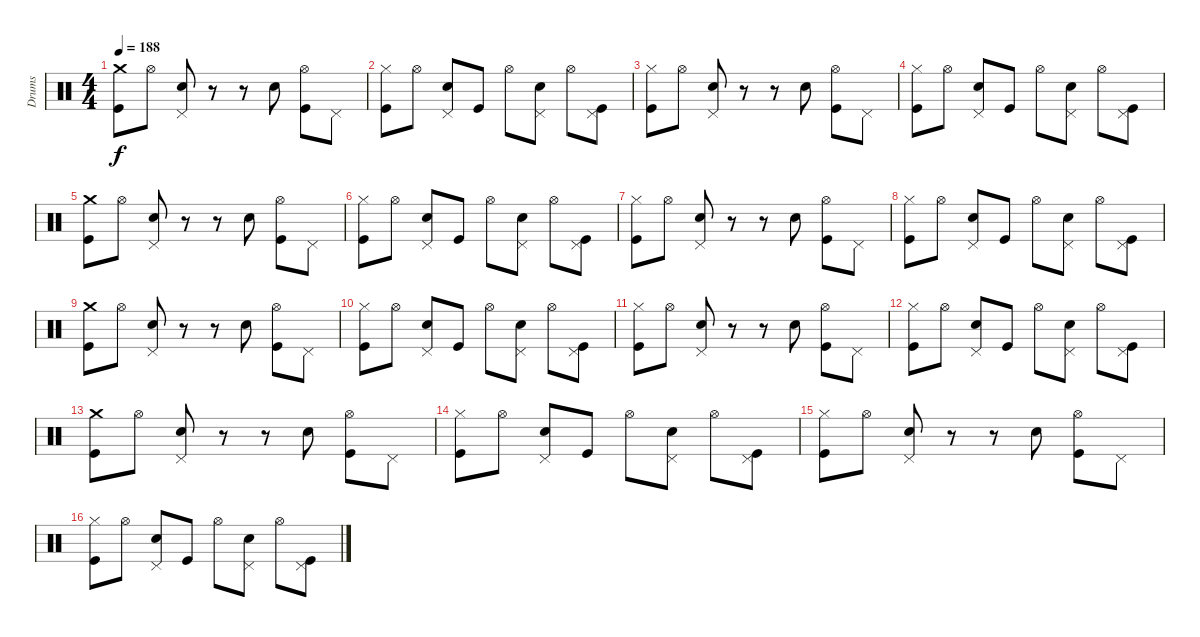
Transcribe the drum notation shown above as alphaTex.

\track ("Drums" "Drums") {instrument percussion}
\staff {score}
\articulation defaults
\ts (4 4)
\tempo 188
\clef neutral
\ks c
("Crash medium (hit)" "Kick (hit)").8{dy f} "Hi-Hat (open)".8 ("Pedal Hi-Hat (hit)" "Electric Snare (hit)").8 r.8 r.8 "Electric Snare (hit)".8 ("Hi-Hat (open)" "Kick (hit)").8 "Pedal Hi-Hat (hit)".8 |
("Hi-Hat (closed)" "Kick (hit)").8 "Hi-Hat (open)".8 ("Pedal Hi-Hat (hit)" "Electric Snare (hit)").8 "Kick (hit)".8 "Hi-Hat (open)".8 ("Pedal Hi-Hat (hit)" "Electric Snare (hit)").8 "Hi-Hat (open)".8 ("Pedal Hi-Hat (hit)" "Kick (hit)").8 |
("Hi-Hat (closed)" "Kick (hit)").8 "Hi-Hat (open)".8 ("Pedal Hi-Hat (hit)" "Electric Snare (hit)").8 r.8 r.8 "Electric Snare (hit)".8 ("Hi-Hat (open)" "Kick (hit)").8 "Pedal Hi-Hat (hit)".8 |
("Hi-Hat (closed)" "Kick (hit)").8 "Hi-Hat (open)".8 ("Pedal Hi-Hat (hit)" "Electric Snare (hit)").8 "Kick (hit)".8 "Hi-Hat (open)".8 ("Pedal Hi-Hat (hit)" "Electric Snare (hit)").8 "Hi-Hat (open)".8 ("Pedal Hi-Hat (hit)" "Kick (hit)").8 |
("Crash medium (hit)" "Kick (hit)").8 "Hi-Hat (open)".8 ("Pedal Hi-Hat (hit)" "Electric Snare (hit)").8 r.8 r.8 "Electric Snare (hit)".8 ("Hi-Hat (open)" "Kick (hit)").8 "Pedal Hi-Hat (hit)".8 |
("Hi-Hat (closed)" "Kick (hit)").8 "Hi-Hat (open)".8 ("Pedal Hi-Hat (hit)" "Electric Snare (hit)").8 "Kick (hit)".8 "Hi-Hat (open)".8 ("Pedal Hi-Hat (hit)" "Electric Snare (hit)").8 "Hi-Hat (open)".8 ("Pedal Hi-Hat (hit)" "Kick (hit)").8 |
("Hi-Hat (closed)" "Kick (hit)").8 "Hi-Hat (open)".8 ("Pedal Hi-Hat (hit)" "Electric Snare (hit)").8 r.8 r.8 "Electric Snare (hit)".8 ("Hi-Hat (open)" "Kick (hit)").8 "Pedal Hi-Hat (hit)".8 |
("Hi-Hat (closed)" "Kick (hit)").8 "Hi-Hat (open)".8 ("Pedal Hi-Hat (hit)" "Electric Snare (hit)").8 "Kick (hit)".8 "Hi-Hat (open)".8 ("Pedal Hi-Hat (hit)" "Electric Snare (hit)").8 "Hi-Hat (open)".8 ("Pedal Hi-Hat (hit)" "Kick (hit)").8 |
("Crash medium (hit)" "Kick (hit)").8 "Hi-Hat (open)".8 ("Pedal Hi-Hat (hit)" "Electric Snare (hit)").8 r.8 r.8 "Electric Snare (hit)".8 ("Hi-Hat (open)" "Kick (hit)").8 "Pedal Hi-Hat (hit)".8 |
("Hi-Hat (closed)" "Kick (hit)").8 "Hi-Hat (open)".8 ("Pedal Hi-Hat (hit)" "Electric Snare (hit)").8 "Kick (hit)".8 "Hi-Hat (open)".8 ("Pedal Hi-Hat (hit)" "Electric Snare (hit)").8 "Hi-Hat (open)".8 ("Pedal Hi-Hat (hit)" "Kick (hit)").8 |
("Hi-Hat (closed)" "Kick (hit)").8 "Hi-Hat (open)".8 ("Pedal Hi-Hat (hit)" "Electric Snare (hit)").8 r.8 r.8 "Electric Snare (hit)".8 ("Hi-Hat (open)" "Kick (hit)").8 "Pedal Hi-Hat (hit)".8 |
("Hi-Hat (closed)" "Kick (hit)").8 "Hi-Hat (open)".8 ("Pedal Hi-Hat (hit)" "Electric Snare (hit)").8 "Kick (hit)".8 "Hi-Hat (open)".8 ("Pedal Hi-Hat (hit)" "Electric Snare (hit)").8 "Hi-Hat (open)".8 ("Pedal Hi-Hat (hit)" "Kick (hit)").8 |
("Crash medium (hit)" "Kick (hit)").8 "Hi-Hat (open)".8 ("Pedal Hi-Hat (hit)" "Electric Snare (hit)").8 r.8 r.8 "Electric Snare (hit)".8 ("Hi-Hat (open)" "Kick (hit)").8 "Pedal Hi-Hat (hit)".8 |
("Hi-Hat (closed)" "Kick (hit)").8 "Hi-Hat (open)".8 ("Pedal Hi-Hat (hit)" "Electric Snare (hit)").8 "Kick (hit)".8 "Hi-Hat (open)".8 ("Pedal Hi-Hat (hit)" "Electric Snare (hit)").8 "Hi-Hat (open)".8 ("Pedal Hi-Hat (hit)" "Kick (hit)").8 |
("Hi-Hat (closed)" "Kick (hit)").8 "Hi-Hat (open)".8 ("Pedal Hi-Hat (hit)" "Electric Snare (hit)").8 r.8 r.8 "Electric Snare (hit)".8 ("Hi-Hat (open)" "Kick (hit)").8 "Pedal Hi-Hat (hit)".8 |
("Hi-Hat (closed)" "Kick (hit)").8 "Hi-Hat (open)".8 ("Pedal Hi-Hat (hit)" "Electric Snare (hit)").8 "Kick (hit)".8 "Hi-Hat (open)".8 ("Pedal Hi-Hat (hit)" "Electric Snare (hit)").8 "Hi-Hat (open)".8 ("Pedal Hi-Hat (hit)" "Kick (hit)").8
